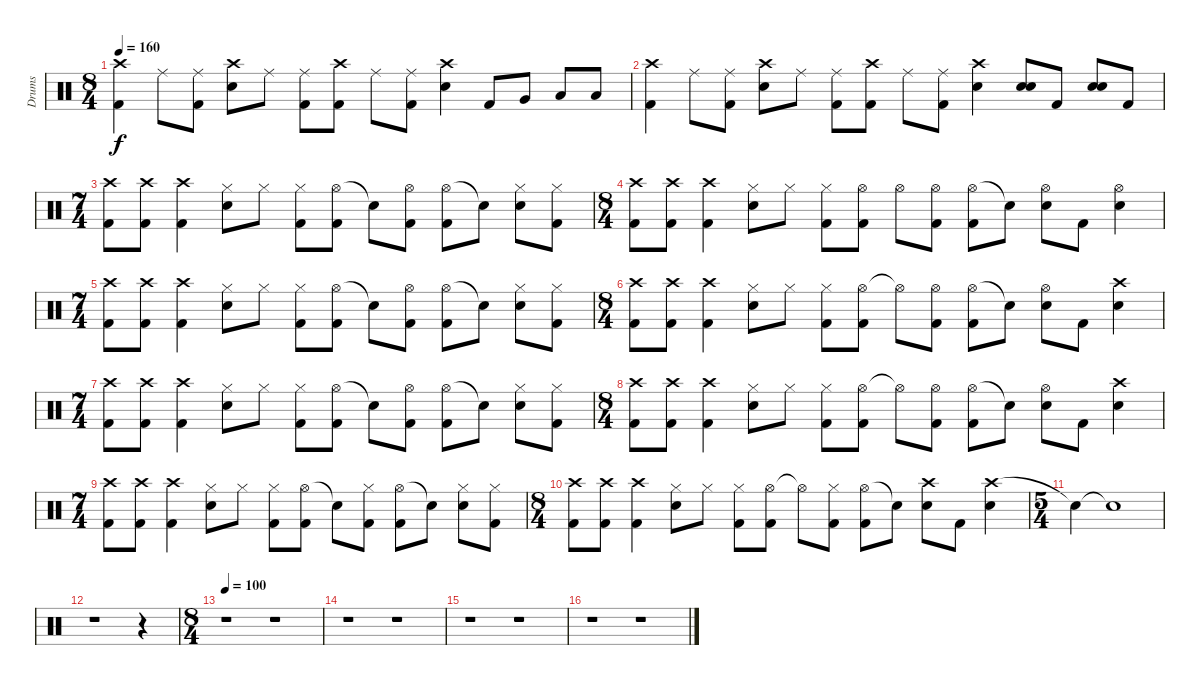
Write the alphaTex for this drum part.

\track ("Drums" "Drums") {instrument percussion}
\staff {score}
\articulation defaults
\ts (8 4)
\tempo 160
\clef neutral
\ks c
("Crash high (hit)" "Kick (hit) 2").4{dy f} "Ride (middle)".8 ("Ride (middle)" "Kick (hit) 2").8 ("Crash high (hit)" "Snare (hit) 2").8 "Ride (middle)".8 ("Ride (middle)" "Kick (hit) 2").8 ("Crash high (hit)" "Kick (hit) 2").8 "Ride (middle)".8 ("Ride (middle)" "Kick (hit) 2").8 ("Crash high (hit)" "Snare (hit) 2").4 "Kick (hit) 2".8 "Very Low Tom (hit)".8 "Low Floor Tom (hit)".8 "Low Floor Tom (hit)".8 |
("Crash high (hit)" "Kick (hit) 2").4 "Ride (middle)".8 ("Ride (middle)" "Kick (hit) 2").8 ("Crash high (hit)" "Snare (hit) 2").8 "Ride (middle)".8 ("Ride (middle)" "Kick (hit) 2").8 ("Crash high (hit)" "Kick (hit) 2").8 "Ride (middle)".8 ("Ride (middle)" "Kick (hit) 2").8 ("Crash high (hit)" "Snare (hit) 2").4 ("Snare (hit) 2" "Snare (hit) 2").8 "Kick (hit) 2".8 ("Snare (hit) 2" "Snare (hit) 2").8 "Kick (hit) 2".8 |
\ts (7 4)
("Crash high (hit)" "Kick (hit) 2").8 ("Crash high (hit)" "Kick (hit) 2").8 ("Crash high (hit)" "Kick (hit) 2").4 ("Hi-Hat (closed)" "Snare (hit) 2").8 "Hi-Hat (closed)".8 ("Hi-Hat (closed)" "Kick (hit) 2").8 ("Hi-Hat (open)" "Kick (hit) 2").8 "Snare (hit)"{t}.8 ("Hi-Hat (open)" "Kick (hit) 2").8 ("Hi-Hat (open)" "Kick (hit) 2").8 "Snare (hit)"{t}.8 ("Hi-Hat (closed)" "Snare (hit) 2").8 ("Hi-Hat (closed)" "Kick (hit) 2").8 |
\ts (8 4)
("Crash high (hit)" "Kick (hit) 2").8 ("Crash high (hit)" "Kick (hit) 2").8 ("Crash high (hit)" "Kick (hit) 2").4 ("Hi-Hat (closed)" "Snare (hit) 2").8 "Hi-Hat (closed)".8 ("Hi-Hat (closed)" "Kick (hit) 2").8 ("Hi-Hat (open)" "Kick (hit) 2").8 "Hi-Hat (open)".8 ("Hi-Hat (open)" "Kick (hit) 2").8 ("Hi-Hat (open)" "Kick (hit) 2").8 "Snare (hit)"{t}.8 ("Hi-Hat (open)" "Snare (hit) 2").8 "Kick (hit) 2".8 ("Hi-Hat (open)" "Snare (hit) 2").4 |
\ts (7 4)
("Crash high (hit)" "Kick (hit) 2").8 ("Crash high (hit)" "Kick (hit) 2").8 ("Crash high (hit)" "Kick (hit) 2").4 ("Hi-Hat (closed)" "Snare (hit) 2").8 "Hi-Hat (closed)".8 ("Hi-Hat (closed)" "Kick (hit) 2").8 ("Hi-Hat (open)" "Kick (hit) 2").8 "Snare (hit)"{t}.8 ("Hi-Hat (open)" "Kick (hit) 2").8 ("Hi-Hat (open)" "Kick (hit) 2").8 "Snare (hit)"{t}.8 ("Hi-Hat (closed)" "Snare (hit) 2").8 ("Hi-Hat (closed)" "Kick (hit) 2").8 |
\ts (8 4)
("Crash high (hit)" "Kick (hit) 2").8 ("Crash high (hit)" "Kick (hit) 2").8 ("Crash high (hit)" "Kick (hit) 2").4 ("Hi-Hat (closed)" "Snare (hit) 2").8 "Hi-Hat (closed)".8 ("Hi-Hat (closed)" "Kick (hit) 2").8 ("Hi-Hat (open)" "Kick (hit) 2").8 "Hi-Hat (open)"{t}.8 ("Hi-Hat (open)" "Kick (hit) 2").8 ("Hi-Hat (open)" "Kick (hit) 2").8 "Snare (hit)"{t}.8 ("Hi-Hat (open)" "Snare (hit) 2").8 "Kick (hit) 2".8 ("Crash high (hit)" "Snare (hit) 2").4 |
\ts (7 4)
("Crash high (hit)" "Kick (hit) 2").8 ("Crash high (hit)" "Kick (hit) 2").8 ("Crash high (hit)" "Kick (hit) 2").4 ("Hi-Hat (closed)" "Snare (hit) 2").8 "Hi-Hat (closed)".8 ("Hi-Hat (closed)" "Kick (hit) 2").8 ("Hi-Hat (open)" "Kick (hit) 2").8 "Snare (hit)"{t}.8 ("Hi-Hat (open)" "Kick (hit) 2").8 ("Hi-Hat (open)" "Kick (hit) 2").8 "Snare (hit)"{t}.8 ("Hi-Hat (closed)" "Snare (hit) 2").8 ("Hi-Hat (closed)" "Kick (hit) 2").8 |
\ts (8 4)
("Crash high (hit)" "Kick (hit) 2").8 ("Crash high (hit)" "Kick (hit) 2").8 ("Crash high (hit)" "Kick (hit) 2").4 ("Hi-Hat (closed)" "Snare (hit) 2").8 "Hi-Hat (closed)".8 ("Hi-Hat (closed)" "Kick (hit) 2").8 ("Hi-Hat (open)" "Kick (hit) 2").8 "Hi-Hat (open)"{t}.8 ("Hi-Hat (open)" "Kick (hit) 2").8 ("Hi-Hat (open)" "Kick (hit) 2").8 "Snare (hit)"{t}.8 ("Hi-Hat (open)" "Snare (hit) 2").8 "Kick (hit) 2".8 ("Crash high (hit)" "Snare (hit) 2").4 |
\ts (7 4)
("Crash high (hit)" "Kick (hit) 2").8 ("Crash high (hit)" "Kick (hit) 2").8 ("Crash high (hit)" "Kick (hit) 2").4 ("Hi-Hat (closed)" "Snare (hit) 2").8 "Hi-Hat (closed)".8 ("Hi-Hat (closed)" "Kick (hit) 2").8 ("Hi-Hat (open)" "Kick (hit) 2").8 "Snare (hit)"{t}.8 ("Hi-Hat (closed)" "Kick (hit) 2").8 ("Hi-Hat (open)" "Kick (hit) 2").8 "Snare (hit)"{t}.8 ("Hi-Hat (closed)" "Snare (hit) 2").8 ("Hi-Hat (closed)" "Kick (hit) 2").8 |
\ts (8 4)
("Crash high (hit)" "Kick (hit) 2").8 ("Crash high (hit)" "Kick (hit) 2").8 ("Crash high (hit)" "Kick (hit) 2").4 ("Hi-Hat (closed)" "Snare (hit) 2").8 "Hi-Hat (closed)".8 ("Hi-Hat (closed)" "Kick (hit) 2").8 ("Hi-Hat (open)" "Kick (hit) 2").8 "Hi-Hat (open)"{t}.8 ("Hi-Hat (closed)" "Kick (hit) 2").8 ("Hi-Hat (open)" "Kick (hit) 2").8 "Snare (hit)"{t}.8 ("Crash high (hit)" "Snare (hit) 2").8 "Kick (hit) 2".8 ("Crash high (hit)" "Snare (hit) 2").4 |
\ts (5 4)
"Snare (hit)"{t}.4 "Snare (hit)"{t}.1 |
r.1 r.4 |
\ts (8 4)
\tempo 100
r.1 r.1 |
r.1 r.1 |
r.1 r.1 |
r.1 r.1
